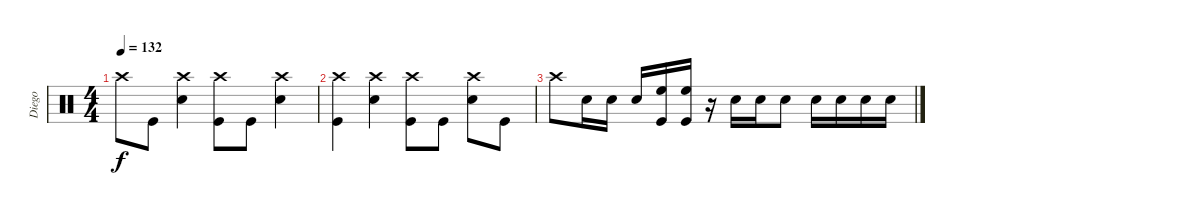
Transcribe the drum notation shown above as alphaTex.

\track ("Diego" "Diego") {instrument percussion}
\staff {score}
\articulation defaults
\ts (4 4)
\tempo 132
\clef neutral
\ks c "Crash high (hit)".8{dy f} "Kick (hit)".8
("Crash high (hit)" "Snare (hit) 2").4 ("Crash high (hit)" "Kick (hit)").8 "Kick (hit)".8 ("Crash high (hit)" "Snare (hit) 2").4 |
("Crash high (hit)" "Kick (hit)").4 ("Crash high (hit)" "Snare (hit) 2").4 ("Crash high (hit)" "Kick (hit)").8 "Kick (hit)".8 ("Crash high (hit)" "Snare (hit) 2").8 "Kick (hit)".8 |
"Crash high (hit)".8 "Snare (hit) 2".16 "Snare (hit) 2".16 "Snare (hit) 2".16 ("High Floor Tom (hit)" "Kick (hit)").16 ("High Floor Tom (hit)" "Kick (hit)").16 r.16 "Snare (hit) 2".16 "Snare (hit) 2".16 "Snare (hit) 2".8 "Snare (hit) 2".16 "Snare (hit) 2".16 "Snare (hit) 2".16 "Snare (hit) 2".16
